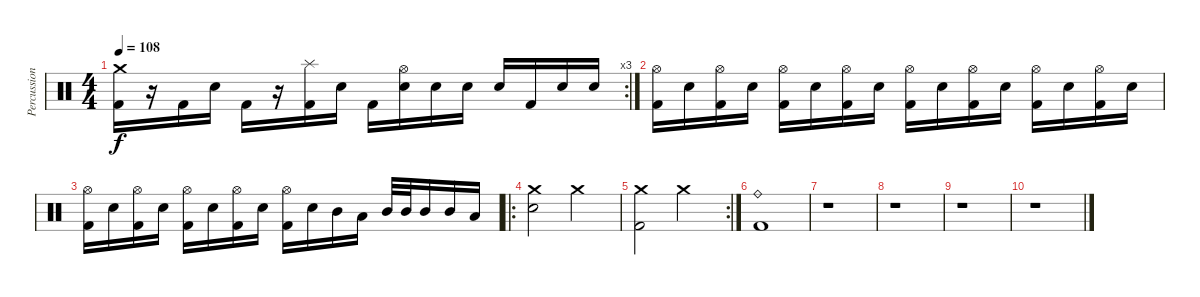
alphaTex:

\track ("Percussion" "Percussion") {instrument percussion}
\staff {score}
\articulation defaults
\rc 3
\ts (4 4)
\tempo 108
\clef neutral
\ks c
("Crash medium (hit)" "Kick (hit) 2").16{dy f} r.16 "Kick (hit) 2".16 "Snare (hit) 2".16 "Kick (hit) 2".16 r.16 ("Splash (hit)" "Kick (hit) 2").16 "Snare (hit) 2".16 "Kick (hit) 2".16 ("Hi-Hat (open)" "Snare (hit) 2").16 "Snare (hit) 2".16 "Snare (hit) 2".16 "Snare (hit) 2".16 "Kick (hit) 2".16 "Snare (hit) 2".16 "Snare (hit) 2".16 |
("Hi-Hat (open)" "Kick (hit) 2").16 "Snare (hit) 2".16 ("Hi-Hat (open)" "Kick (hit) 2").16 "Snare (hit) 2".16 ("Hi-Hat (open)" "Kick (hit) 2").16 "Snare (hit) 2".16 ("Hi-Hat (open)" "Kick (hit) 2").16 "Snare (hit) 2".16 ("Hi-Hat (open)" "Kick (hit) 2").16 "Snare (hit) 2".16 ("Hi-Hat (open)" "Kick (hit) 2").16 "Snare (hit) 2".16 ("Hi-Hat (open)" "Kick (hit) 2").16 "Snare (hit) 2".16 ("Hi-Hat (open)" "Kick (hit) 2").16 "Snare (hit) 2".16 |
("Hi-Hat (open)" "Kick (hit) 2").16 "Snare (hit) 2".16 ("Hi-Hat (open)" "Kick (hit) 2").16 "Snare (hit) 2".16 ("Hi-Hat (open)" "Kick (hit) 2").16 "Snare (hit) 2".16 ("Hi-Hat (open)" "Kick (hit) 2").16 "Snare (hit) 2".16 ("Hi-Hat (open)" "Kick (hit) 2").16 "Snare (hit) 2".16 "Mid Tom (hit)".16 "Low Tom (hit)".16 "Mid Tom (hit)".32 "Mid Tom (hit)".32 "Mid Tom (hit)".16 "Mid Tom (hit)".16 "Low Tom (hit)".16 |
\ro
("Crash medium (hit)" "Snare (hit) 2").2 "Crash medium (hit)".2 |
\rc 2
("Crash medium (hit)" "Kick (hit) 2").2 "Crash medium (hit)".2 |
("Ride (bell)" "Kick (hit) 2").1 |
r.1 |
r.1 |
r.1 |
r.1
